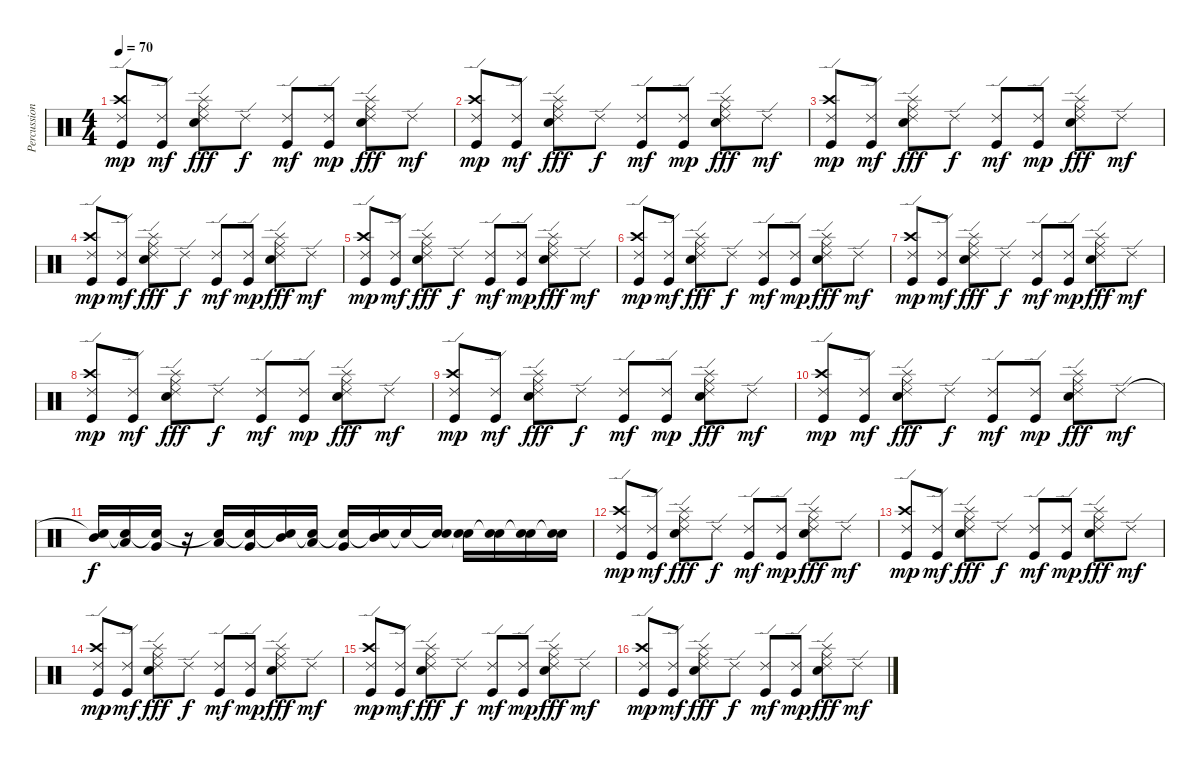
\track ("Percussions" "Percussion") {instrument percussion}
\staff {score}
\articulation defaults
\ts (4 4)
\tempo 70
\clef neutral
\ks c
("Ride (edge) 2" "Crash high (hit)" "Kick (hit)").8{dy mp} ("Ride (edge) 2" "Kick (hit)").8{dy mf} ("Ride (middle)" "Ride (edge) 2" "Splash (hit)" "Electric Snare (hit)").8{dy fff} "Ride (edge) 2".8{dy f} ("Ride (edge) 2" "Kick (hit)").8{dy mf} ("Ride (edge) 2" "Kick (hit)").8{dy mp} ("Ride (middle)" "Ride (edge) 2" "Splash (hit)" "Electric Snare (hit)").8{dy fff} "Ride (edge) 2".8{dy mf} |
("Ride (edge) 2" "Crash high (hit)" "Kick (hit)").8{dy mp} ("Ride (edge) 2" "Kick (hit)").8{dy mf} ("Ride (middle)" "Ride (edge) 2" "Splash (hit)" "Electric Snare (hit)").8{dy fff} "Ride (edge) 2".8{dy f} ("Ride (edge) 2" "Kick (hit)").8{dy mf} ("Ride (edge) 2" "Kick (hit)").8{dy mp} ("Ride (middle)" "Ride (edge) 2" "Splash (hit)" "Electric Snare (hit)").8{dy fff} "Ride (edge) 2".8{dy mf} |
("Ride (edge) 2" "Crash high (hit)" "Kick (hit)").8{dy mp} ("Ride (edge) 2" "Kick (hit)").8{dy mf} ("Ride (middle)" "Ride (edge) 2" "Splash (hit)" "Electric Snare (hit)").8{dy fff} "Ride (edge) 2".8{dy f} ("Ride (edge) 2" "Kick (hit)").8{dy mf} ("Ride (edge) 2" "Kick (hit)").8{dy mp} ("Ride (middle)" "Ride (edge) 2" "Splash (hit)" "Electric Snare (hit)").8{dy fff} "Ride (edge) 2".8{dy mf} |
("Ride (edge) 2" "Crash high (hit)" "Kick (hit)").8{dy mp} ("Ride (edge) 2" "Kick (hit)").8{dy mf} ("Ride (middle)" "Ride (edge) 2" "Splash (hit)" "Electric Snare (hit)").8{dy fff} "Ride (edge) 2".8{dy f} ("Ride (edge) 2" "Kick (hit)").8{dy mf} ("Ride (edge) 2" "Kick (hit)").8{dy mp} ("Ride (middle)" "Ride (edge) 2" "Splash (hit)" "Electric Snare (hit)").8{dy fff} "Ride (edge) 2".8{dy mf} |
("Ride (edge) 2" "Crash high (hit)" "Kick (hit)").8{dy mp} ("Ride (edge) 2" "Kick (hit)").8{dy mf} ("Ride (middle)" "Ride (edge) 2" "Splash (hit)" "Electric Snare (hit)").8{dy fff} "Ride (edge) 2".8{dy f} ("Ride (edge) 2" "Kick (hit)").8{dy mf} ("Ride (edge) 2" "Kick (hit)").8{dy mp} ("Ride (middle)" "Ride (edge) 2" "Splash (hit)" "Electric Snare (hit)").8{dy fff} "Ride (edge) 2".8{dy mf} |
("Ride (edge) 2" "Crash high (hit)" "Kick (hit)").8{dy mp} ("Ride (edge) 2" "Kick (hit)").8{dy mf} ("Ride (middle)" "Ride (edge) 2" "Splash (hit)" "Electric Snare (hit)").8{dy fff} "Ride (edge) 2".8{dy f} ("Ride (edge) 2" "Kick (hit)").8{dy mf} ("Ride (edge) 2" "Kick (hit)").8{dy mp} ("Ride (middle)" "Ride (edge) 2" "Splash (hit)" "Electric Snare (hit)").8{dy fff} "Ride (edge) 2".8{dy mf} |
("Ride (edge) 2" "Crash high (hit)" "Kick (hit)").8{dy mp} ("Ride (edge) 2" "Kick (hit)").8{dy mf} ("Ride (middle)" "Ride (edge) 2" "Splash (hit)" "Electric Snare (hit)").8{dy fff} "Ride (edge) 2".8{dy f} ("Ride (edge) 2" "Kick (hit)").8{dy mf} ("Ride (edge) 2" "Kick (hit)").8{dy mp} ("Ride (middle)" "Ride (edge) 2" "Splash (hit)" "Electric Snare (hit)").8{dy fff} "Ride (edge) 2".8{dy mf} |
("Ride (edge) 2" "Crash high (hit)" "Kick (hit)").8{dy mp} ("Ride (edge) 2" "Kick (hit)").8{dy mf} ("Ride (middle)" "Ride (edge) 2" "Splash (hit)" "Electric Snare (hit)").8{dy fff} "Ride (edge) 2".8{dy f} ("Ride (edge) 2" "Kick (hit)").8{dy mf} ("Ride (edge) 2" "Kick (hit)").8{dy mp} ("Ride (middle)" "Ride (edge) 2" "Splash (hit)" "Electric Snare (hit)").8{dy fff} "Ride (edge) 2".8{dy mf} |
("Ride (edge) 2" "Crash high (hit)" "Kick (hit)").8{dy mp} ("Ride (edge) 2" "Kick (hit)").8{dy mf} ("Ride (middle)" "Ride (edge) 2" "Splash (hit)" "Electric Snare (hit)").8{dy fff} "Ride (edge) 2".8{dy f} ("Ride (edge) 2" "Kick (hit)").8{dy mf} ("Ride (edge) 2" "Kick (hit)").8{dy mp} ("Ride (middle)" "Ride (edge) 2" "Splash (hit)" "Electric Snare (hit)").8{dy fff} "Ride (edge) 2".8{dy mf} |
("Ride (edge) 2" "Crash high (hit)" "Kick (hit)").8{dy mp} ("Ride (edge) 2" "Kick (hit)").8{dy mf} ("Ride (middle)" "Ride (edge) 2" "Splash (hit)" "Electric Snare (hit)").8{dy fff} "Ride (edge) 2".8{dy f} ("Ride (edge) 2" "Kick (hit)").8{dy mf} ("Ride (edge) 2" "Kick (hit)").8{dy mp} ("Ride (middle)" "Ride (edge) 2" "Splash (hit)" "Electric Snare (hit)").8{dy fff} "Ride (edge) 2".8{dy mf} |
("Snare (hit)"{t} "Mid Tom (hit)").16{dy f} ("Snare (hit)"{t} "Low Tom (hit)").16 ("Snare (hit)"{t} "Very Low Tom (hit)").16 r.16 ("Snare (hit)"{t} "Low Tom (hit)").16 ("Snare (hit)"{t} "Very Low Tom (hit)").16 ("Snare (hit)"{t} "Mid Tom (hit)").16 ("Snare (hit)"{t} "Low Tom (hit)").16 ("Snare (hit)"{t} "Very Low Tom (hit)").16 ("Snare (hit)"{t} "Mid Tom (hit)").16 "Snare (hit)"{t}.16 ("Snare (hit)"{t} "Electric Snare (hit)").16 ("Snare (hit)"{t} "Electric Snare (hit)").16 ("Snare (hit)"{t} "Electric Snare (hit)").16 ("Snare (hit)"{t} "Electric Snare (hit)").16 ("Snare (hit)"{t} "Electric Snare (hit)").16 |
("Ride (edge) 2" "Crash high (hit)" "Kick (hit)").8{dy mp} ("Ride (edge) 2" "Kick (hit)").8{dy mf} ("Ride (middle)" "Ride (edge) 2" "Splash (hit)" "Electric Snare (hit)").8{dy fff} "Ride (edge) 2".8{dy f} ("Ride (edge) 2" "Kick (hit)").8{dy mf} ("Ride (edge) 2" "Kick (hit)").8{dy mp} ("Ride (middle)" "Ride (edge) 2" "Splash (hit)" "Electric Snare (hit)").8{dy fff} "Ride (edge) 2".8{dy mf} |
("Ride (edge) 2" "Crash high (hit)" "Kick (hit)").8{dy mp} ("Ride (edge) 2" "Kick (hit)").8{dy mf} ("Ride (middle)" "Ride (edge) 2" "Splash (hit)" "Electric Snare (hit)").8{dy fff} "Ride (edge) 2".8{dy f} ("Ride (edge) 2" "Kick (hit)").8{dy mf} ("Ride (edge) 2" "Kick (hit)").8{dy mp} ("Ride (middle)" "Ride (edge) 2" "Splash (hit)" "Electric Snare (hit)").8{dy fff} "Ride (edge) 2".8{dy mf} |
("Ride (edge) 2" "Crash high (hit)" "Kick (hit)").8{dy mp} ("Ride (edge) 2" "Kick (hit)").8{dy mf} ("Ride (middle)" "Ride (edge) 2" "Splash (hit)" "Electric Snare (hit)").8{dy fff} "Ride (edge) 2".8{dy f} ("Ride (edge) 2" "Kick (hit)").8{dy mf} ("Ride (edge) 2" "Kick (hit)").8{dy mp} ("Ride (middle)" "Ride (edge) 2" "Splash (hit)" "Electric Snare (hit)").8{dy fff} "Ride (edge) 2".8{dy mf} |
("Ride (edge) 2" "Crash high (hit)" "Kick (hit)").8{dy mp} ("Ride (edge) 2" "Kick (hit)").8{dy mf} ("Ride (middle)" "Ride (edge) 2" "Splash (hit)" "Electric Snare (hit)").8{dy fff} "Ride (edge) 2".8{dy f} ("Ride (edge) 2" "Kick (hit)").8{dy mf} ("Ride (edge) 2" "Kick (hit)").8{dy mp} ("Ride (middle)" "Ride (edge) 2" "Splash (hit)" "Electric Snare (hit)").8{dy fff} "Ride (edge) 2".8{dy mf} |
("Ride (edge) 2" "Crash high (hit)" "Kick (hit)").8{dy mp} ("Ride (edge) 2" "Kick (hit)").8{dy mf} ("Ride (middle)" "Ride (edge) 2" "Splash (hit)" "Electric Snare (hit)").8{dy fff} "Ride (edge) 2".8{dy f} ("Ride (edge) 2" "Kick (hit)").8{dy mf} ("Ride (edge) 2" "Kick (hit)").8{dy mp} ("Ride (middle)" "Ride (edge) 2" "Splash (hit)" "Electric Snare (hit)").8{dy fff} "Ride (edge) 2".8{dy mf}
